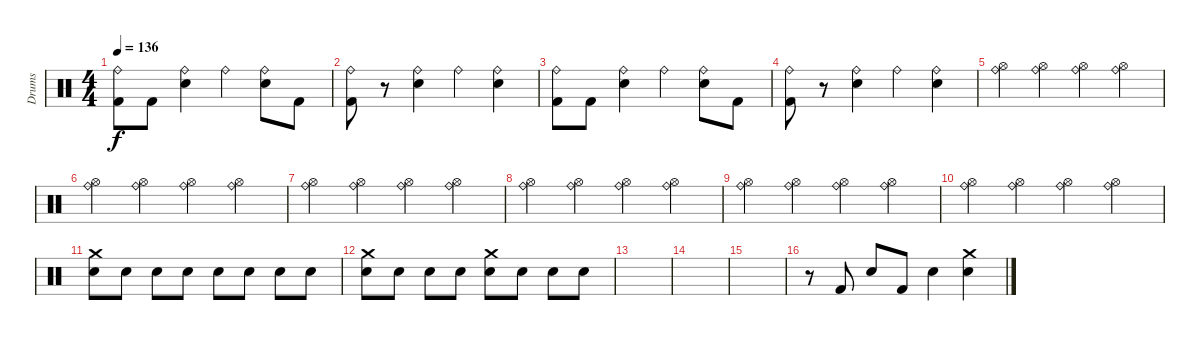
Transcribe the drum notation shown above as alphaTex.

\track ("Drums" "Drums") {instrument percussion}
\staff {score}
\articulation defaults
\ts (4 4)
\tempo 136
\clef neutral
\ks c
("Ride (bell)" "Kick (hit) 2").8{dy f} "Kick (hit) 2".8 ("Ride (bell)" "Electric Snare (hit)").4 "Ride (bell)".4 ("Ride (bell)" "Electric Snare (hit)").8 "Kick (hit) 2".8 |
("Ride (bell)" "Kick (hit) 2").8 r.8 ("Ride (bell)" "Electric Snare (hit)").4 "Ride (bell)".4 ("Ride (bell)" "Electric Snare (hit)").4 |
("Ride (bell)" "Kick (hit) 2").8 "Kick (hit) 2".8 ("Ride (bell)" "Electric Snare (hit)").4 "Ride (bell)".4 ("Ride (bell)" "Electric Snare (hit)").8 "Kick (hit) 2".8 |
("Ride (bell)" "Kick (hit) 2").8 r.8 ("Ride (bell)" "Electric Snare (hit)").4 "Ride (bell)".4 ("Ride (bell)" "Electric Snare (hit)").4 |
("Ride (bell)" "Hi-Hat (open)").4 ("Ride (bell)" "Hi-Hat (open)").4 ("Ride (bell)" "Hi-Hat (open)").4 ("Ride (bell)" "Hi-Hat (open)").4 |
("Ride (bell)" "Hi-Hat (open)").4 ("Ride (bell)" "Hi-Hat (open)").4 ("Ride (bell)" "Hi-Hat (open)").4 ("Ride (bell)" "Hi-Hat (open)").4 |
("Ride (bell)" "Hi-Hat (open)").4 ("Ride (bell)" "Hi-Hat (open)").4 ("Ride (bell)" "Hi-Hat (open)").4 ("Ride (bell)" "Hi-Hat (open)").4 |
("Ride (bell)" "Hi-Hat (open)").4 ("Ride (bell)" "Hi-Hat (open)").4 ("Ride (bell)" "Hi-Hat (open)").4 ("Ride (bell)" "Hi-Hat (open)").4 |
("Ride (bell)" "Hi-Hat (open)").4 ("Ride (bell)" "Hi-Hat (open)").4 ("Ride (bell)" "Hi-Hat (open)").4 ("Ride (bell)" "Hi-Hat (open)").4 |
("Ride (bell)" "Hi-Hat (open)").4 ("Ride (bell)" "Hi-Hat (open)").4 ("Ride (bell)" "Hi-Hat (open)").4 ("Ride (bell)" "Hi-Hat (open)").4 |
("Crash medium (hit)" "Electric Snare (hit)").8 "Electric Snare (hit)".8 "Electric Snare (hit)".8 "Electric Snare (hit)".8 "Electric Snare (hit)".8 "Electric Snare (hit)".8 "Electric Snare (hit)".8 "Electric Snare (hit)".8 |
("Crash medium (hit)" "Electric Snare (hit)").8 "Electric Snare (hit)".8 "Electric Snare (hit)".8 "Electric Snare (hit)".8 ("Crash medium (hit)" "Electric Snare (hit)").8 "Electric Snare (hit)".8 "Electric Snare (hit)".8 "Electric Snare (hit)".8 |
|
|
|
r.8 "Kick (hit) 2".8 "Electric Snare (hit)".8 "Kick (hit) 2".8 "Electric Snare (hit)".4 ("Crash medium (hit)" "Electric Snare (hit)").4
